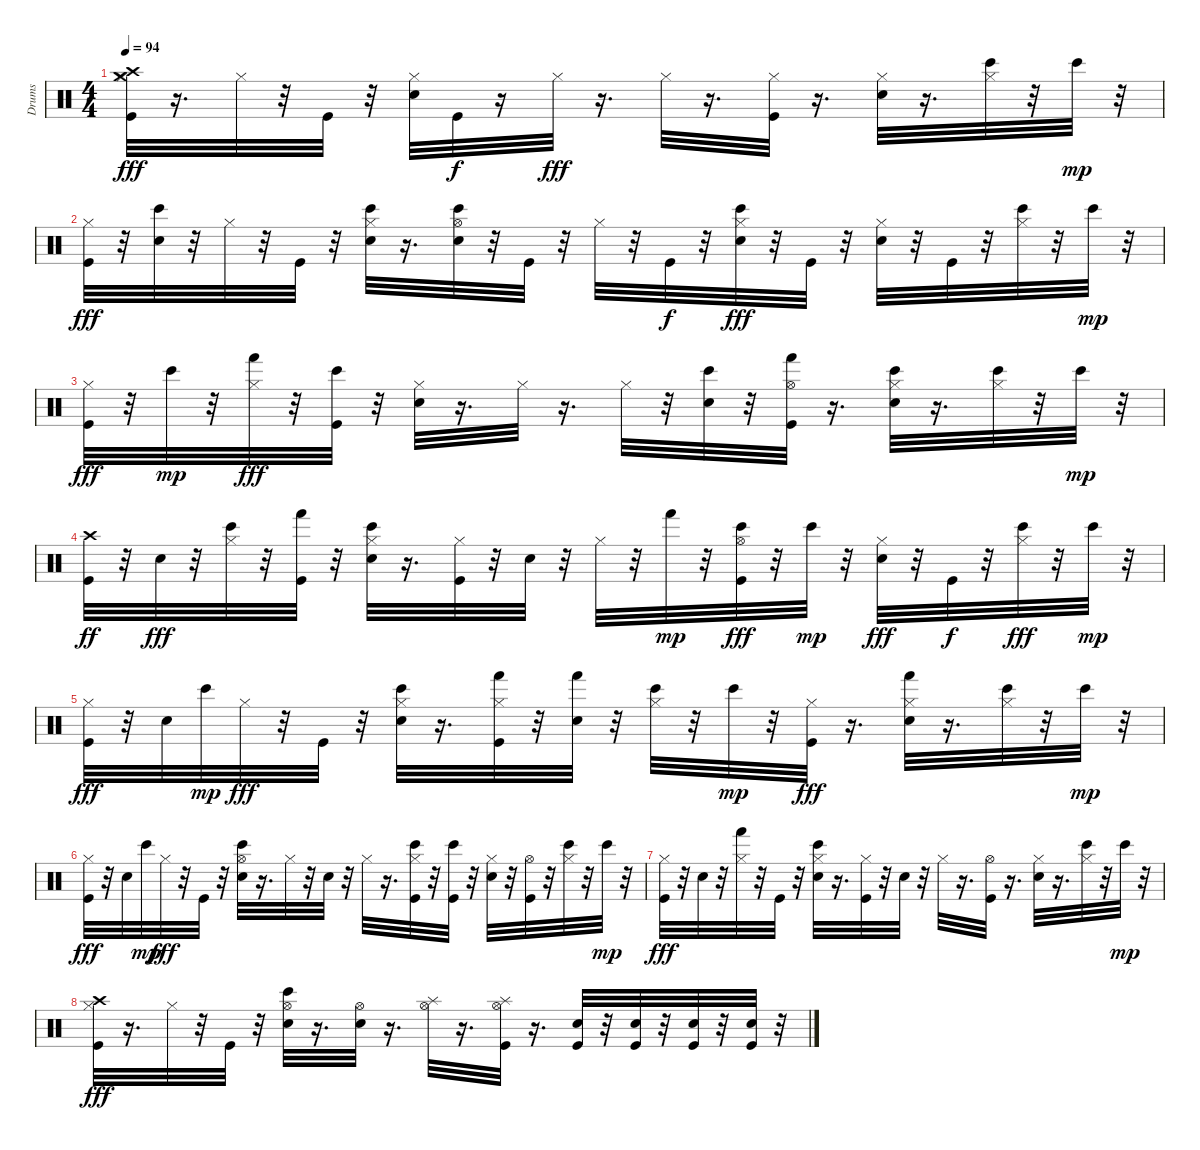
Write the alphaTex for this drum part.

\track ("Drums" "Drums") {instrument percussion}
\staff {score}
\articulation defaults
\ts (4 4)
\tempo 94
\clef neutral
\ks c
("Crash high (hit)" "Kick (hit)" "Hi-Hat (closed)" "Crash medium (hit)").32{dy fff} r.16{d} "Hi-Hat (closed)".32 r.32 "Kick (hit)".32 r.32 ("Electric Snare (hit)" "Hi-Hat (closed)").32 "Kick (hit)".32{dy f} r.16 "Hi-Hat (closed)".32{dy fff} r.16{d} "Hi-Hat (closed)".32 r.16{d} ("Hi-Hat (closed)" "Kick (hit)").32 r.16{d} ("Hi-Hat (closed)" "Electric Snare (hit)").32 r.16{d} ("Bongo High (hit)" "Hi-Hat (closed)").32 r.32 "Bongo High (hit)".32{dy mp} r.32 |
("Hi-Hat (closed)" "Kick (hit)").32{dy fff} r.32 ("Bongo High (hit)" "Electric Snare (hit)").32 r.32 "Hi-Hat (closed)".32 r.32 "Kick (hit)".32 r.32 ("Bongo High (hit)" "Hi-Hat (closed)" "Electric Snare (hit)").32 r.16{d} ("Bongo High (hit)" "Hi-Hat (open)" "Electric Snare (hit)").32 r.32 "Kick (hit)".32 r.32 "Hi-Hat (closed)".32 r.32 "Kick (hit)".32{dy f} r.32 ("Bongo High (hit)" "Electric Snare (hit)" "Hi-Hat (closed)").32{dy fff} r.32 "Kick (hit)".32 r.32 ("Electric Snare (hit)" "Hi-Hat (closed)").32 r.32 "Kick (hit)".32 r.32 ("Bongo High (hit)" "Hi-Hat (closed)").32 r.32 "Bongo High (hit)".32{dy mp} r.32 |
("Hi-Hat (closed)" "Kick (hit)").32{dy fff} r.32 "Bongo High (hit)".32{dy mp} r.32 ("Hand (hit)" "Hi-Hat (closed)").32{dy fff} r.32 ("Bongo High (hit)" "Kick (hit)").32 r.32 ("Hi-Hat (closed)" "Electric Snare (hit)").32 r.16{d} "Hi-Hat (closed)".32 r.16{d} "Hi-Hat (closed)".32 r.32 ("Bongo High (hit)" "Electric Snare (hit)").32 r.32 ("Hand (hit)" "Hi-Hat (open)" "Kick (hit)").32 r.16{d} ("Bongo High (hit)" "Electric Snare (hit)" "Hi-Hat (closed)").32 r.16{d} ("Bongo High (hit)" "Hi-Hat (closed)").32 r.32 "Bongo High (hit)".32{dy mp} r.32 |
("Kick (hit)" "Crash high (hit)").32{dy ff} r.32 "Electric Snare (hit)".32{dy fff} r.32 ("Bongo High (hit)" "Hi-Hat (closed)").32 r.32 ("Hand (hit)" "Kick (hit)").32 r.32 ("Bongo High (hit)" "Hi-Hat (closed)" "Electric Snare (hit)").32 r.16{d} ("Hi-Hat (closed)" "Kick (hit)").32 r.32 "Electric Snare (hit)".32 r.32 "Hi-Hat (closed)".32 r.32 "Hand (hit)".32{dy mp} r.32 ("Bongo High (hit)" "Hi-Hat (open)" "Kick (hit)").32{dy fff} r.32 "Bongo High (hit)".32{dy mp} r.32 ("Electric Snare (hit)" "Hi-Hat (closed)").32{dy fff} r.32 "Kick (hit)".32{dy f} r.32 ("Bongo High (hit)" "Hi-Hat (closed)").32{dy fff} r.32 "Bongo High (hit)".32{dy mp} r.32 |
("Hi-Hat (closed)" "Kick (hit)").32{dy fff} r.32 "Electric Snare (hit)".32 "Bongo High (hit)".32{dy mp} "Hi-Hat (closed)".32{dy fff} r.32 "Kick (hit)".32 r.32 ("Bongo High (hit)" "Hi-Hat (closed)" "Electric Snare (hit)").32 r.16{d} ("Hand (hit)" "Hi-Hat (closed)" "Kick (hit)").32 r.32 ("Hand (hit)" "Electric Snare (hit)").32 r.32 ("Bongo High (hit)" "Hi-Hat (closed)").32 r.32 "Bongo High (hit)".32{dy mp} r.32 ("Kick (hit)" "Hi-Hat (closed)").32{dy fff} r.16{d} ("Hand (hit)" "Hi-Hat (closed)" "Electric Snare (hit)").32 r.16{d} ("Bongo High (hit)" "Hi-Hat (closed)").32 r.32 "Bongo High (hit)".32{dy mp} r.32 |
("Hi-Hat (closed)" "Kick (hit)").32{dy fff} r.32 "Electric Snare (hit)".32 "Bongo High (hit)".32{dy mp} "Hi-Hat (closed)".32{dy fff} r.32 "Kick (hit)".32 r.32 ("Bongo High (hit)" "Hi-Hat (open)" "Electric Snare (hit)").32 r.16{d} "Hi-Hat (closed)".32 r.32 "Electric Snare (hit)".32 r.32 "Hi-Hat (closed)".32 r.16{d} ("Bongo High (hit)" "Kick (hit)" "Hi-Hat (closed)").32 r.32 ("Bongo High (hit)" "Kick (hit)").32 r.32 ("Hi-Hat (closed)" "Electric Snare (hit)").32 r.32 ("Kick (hit)" "Hi-Hat (open)").32 r.32 ("Bongo High (hit)" "Hi-Hat (closed)").32 r.32 "Bongo High (hit)".32{dy mp} r.32 |
("Hi-Hat (closed)" "Kick (hit)").32{dy fff} r.32 "Electric Snare (hit)".32 r.32 ("Hand (hit)" "Hi-Hat (closed)").32 r.32 "Kick (hit)".32 r.32 ("Bongo High (hit)" "Hi-Hat (closed)" "Electric Snare (hit)").32 r.16{d} ("Hi-Hat (closed)" "Kick (hit)").32 r.32 "Electric Snare (hit)".32 r.32 "Hi-Hat (closed)".32 r.16{d} ("Hi-Hat (open)" "Kick (hit)").32 r.16{d} ("Hi-Hat (closed)" "Electric Snare (hit)").32 r.16{d} ("Bongo High (hit)" "Hi-Hat (closed)").32 r.32 "Bongo High (hit)".32{dy mp} r.32 |
("Crash high (hit)" "Hi-Hat (closed)" "Kick (hit)").32{dy fff} r.16{d} "Hi-Hat (closed)".32 r.32 "Kick (hit)".32 r.32 ("Bongo High (hit)" "Electric Snare (hit)" "Hi-Hat (open)").32 r.16{d} ("Hi-Hat (open)" "Electric Snare (hit)").32 r.16{d} ("Splash (hit)" "Hi-Hat (open)").32 r.16{d} ("Kick (hit)" "Hi-Hat (open)" "Splash (hit)").32 r.16{d} ("Kick (hit)" "Electric Snare (hit)").32 r.32 ("Kick (hit)" "Electric Snare (hit)").32 r.32 ("Kick (hit)" "Electric Snare (hit)").32 r.32 ("Kick (hit)" "Electric Snare (hit)").32 r.32
